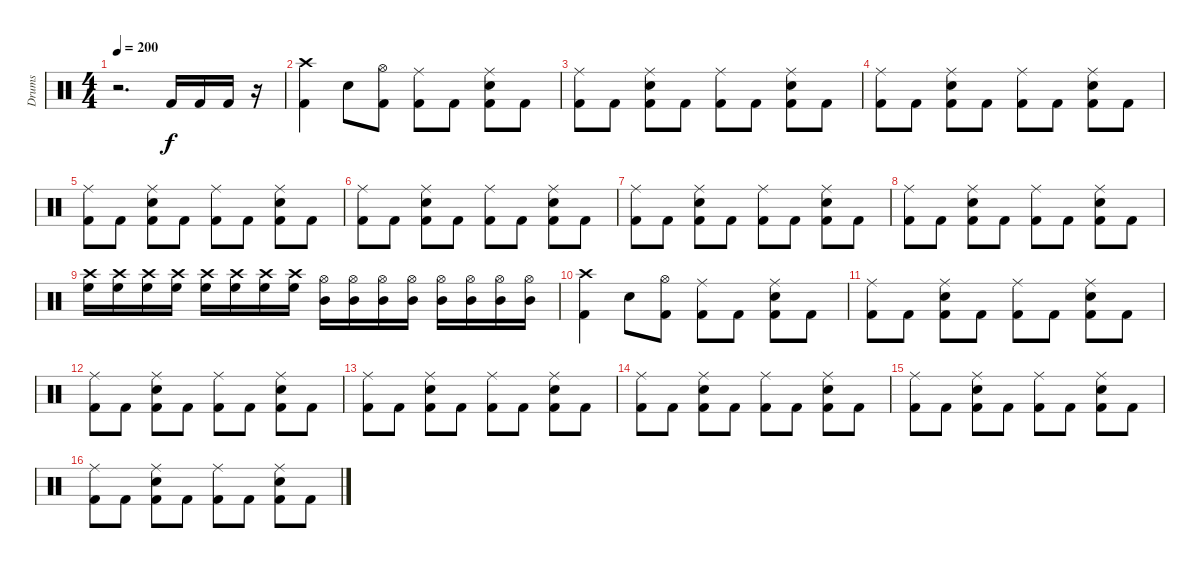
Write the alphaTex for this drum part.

\track ("Drums" "Drums") {instrument percussion}
\staff {score}
\articulation defaults
\ts (4 4)
\tempo 200
\clef neutral
\ks c
r.2{d dy f} "Kick (hit) 2".16 "Kick (hit) 2".16 "Kick (hit) 2".16 r.16 |
("Crash high (hit)" "Kick (hit) 2").4 "Snare (hit) 2".8 ("Hi-Hat (open)" "Kick (hit) 2").8 ("Ride (middle)" "Kick (hit) 2").8 "Kick (hit) 2".8 ("Ride (middle)" "Snare (hit) 2" "Kick (hit) 2").8 "Kick (hit) 2".8 |
("Ride (middle)" "Kick (hit) 2").8 "Kick (hit) 2".8 ("Ride (middle)" "Snare (hit) 2" "Kick (hit) 2").8 "Kick (hit) 2".8 ("Ride (middle)" "Kick (hit) 2").8 "Kick (hit) 2".8 ("Ride (middle)" "Snare (hit) 2" "Kick (hit) 2").8 "Kick (hit) 2".8 |
("Ride (middle)" "Kick (hit) 2").8 "Kick (hit) 2".8 ("Ride (middle)" "Snare (hit) 2" "Kick (hit) 2").8 "Kick (hit) 2".8 ("Ride (middle)" "Kick (hit) 2").8 "Kick (hit) 2".8 ("Ride (middle)" "Snare (hit) 2" "Kick (hit) 2").8 "Kick (hit) 2".8 |
("Ride (middle)" "Kick (hit) 2").8 "Kick (hit) 2".8 ("Ride (middle)" "Snare (hit) 2" "Kick (hit) 2").8 "Kick (hit) 2".8 ("Ride (middle)" "Kick (hit) 2").8 "Kick (hit) 2".8 ("Ride (middle)" "Snare (hit) 2" "Kick (hit) 2").8 "Kick (hit) 2".8 |
("Ride (middle)" "Kick (hit) 2").8 "Kick (hit) 2".8 ("Ride (middle)" "Snare (hit) 2" "Kick (hit) 2").8 "Kick (hit) 2".8 ("Ride (middle)" "Kick (hit) 2").8 "Kick (hit) 2".8 ("Ride (middle)" "Snare (hit) 2" "Kick (hit) 2").8 "Kick (hit) 2".8 |
("Ride (middle)" "Kick (hit) 2").8 "Kick (hit) 2".8 ("Ride (middle)" "Snare (hit) 2" "Kick (hit) 2").8 "Kick (hit) 2".8 ("Ride (middle)" "Kick (hit) 2").8 "Kick (hit) 2".8 ("Ride (middle)" "Snare (hit) 2" "Kick (hit) 2").8 "Kick (hit) 2".8 |
("Ride (middle)" "Kick (hit) 2").8 "Kick (hit) 2".8 ("Ride (middle)" "Snare (hit) 2" "Kick (hit) 2").8 "Kick (hit) 2".8 ("Ride (middle)" "Kick (hit) 2").8 "Kick (hit) 2".8 ("Ride (middle)" "Snare (hit) 2" "Kick (hit) 2").8 "Kick (hit) 2".8 |
("Crash high (hit)" "High Floor Tom (hit)").16 ("Crash high (hit)" "High Floor Tom (hit)").16 ("Crash high (hit)" "High Floor Tom (hit)").16 ("Crash high (hit)" "High Floor Tom (hit)").16 ("Crash high (hit)" "High Floor Tom (hit)").16 ("Crash high (hit)" "High Floor Tom (hit)").16 ("Crash high (hit)" "High Floor Tom (hit)").16 ("Crash high (hit)" "High Floor Tom (hit)").16 ("Hi-Hat (open)" "Mid Tom (hit)").16 ("Hi-Hat (open)" "Mid Tom (hit)").16 ("Hi-Hat (open)" "Mid Tom (hit)").16 ("Hi-Hat (open)" "Mid Tom (hit)").16 ("Hi-Hat (open)" "Mid Tom (hit)").16 ("Hi-Hat (open)" "Mid Tom (hit)").16 ("Hi-Hat (open)" "Mid Tom (hit)").16 ("Hi-Hat (open)" "Mid Tom (hit)").16 |
("Crash high (hit)" "Kick (hit) 2").4 "Snare (hit) 2".8 ("Hi-Hat (open)" "Kick (hit) 2").8 ("Ride (middle)" "Kick (hit) 2").8 "Kick (hit) 2".8 ("Ride (middle)" "Snare (hit) 2" "Kick (hit) 2").8 "Kick (hit) 2".8 |
("Ride (middle)" "Kick (hit) 2").8 "Kick (hit) 2".8 ("Ride (middle)" "Snare (hit) 2" "Kick (hit) 2").8 "Kick (hit) 2".8 ("Ride (middle)" "Kick (hit) 2").8 "Kick (hit) 2".8 ("Ride (middle)" "Snare (hit) 2" "Kick (hit) 2").8 "Kick (hit) 2".8 |
("Ride (middle)" "Kick (hit) 2").8 "Kick (hit) 2".8 ("Ride (middle)" "Snare (hit) 2" "Kick (hit) 2").8 "Kick (hit) 2".8 ("Ride (middle)" "Kick (hit) 2").8 "Kick (hit) 2".8 ("Ride (middle)" "Snare (hit) 2" "Kick (hit) 2").8 "Kick (hit) 2".8 |
("Ride (middle)" "Kick (hit) 2").8 "Kick (hit) 2".8 ("Ride (middle)" "Snare (hit) 2" "Kick (hit) 2").8 "Kick (hit) 2".8 ("Ride (middle)" "Kick (hit) 2").8 "Kick (hit) 2".8 ("Ride (middle)" "Snare (hit) 2" "Kick (hit) 2").8 "Kick (hit) 2".8 |
("Ride (middle)" "Kick (hit) 2").8 "Kick (hit) 2".8 ("Ride (middle)" "Snare (hit) 2" "Kick (hit) 2").8 "Kick (hit) 2".8 ("Ride (middle)" "Kick (hit) 2").8 "Kick (hit) 2".8 ("Ride (middle)" "Snare (hit) 2" "Kick (hit) 2").8 "Kick (hit) 2".8 |
("Ride (middle)" "Kick (hit) 2").8 "Kick (hit) 2".8 ("Ride (middle)" "Snare (hit) 2" "Kick (hit) 2").8 "Kick (hit) 2".8 ("Ride (middle)" "Kick (hit) 2").8 "Kick (hit) 2".8 ("Ride (middle)" "Snare (hit) 2" "Kick (hit) 2").8 "Kick (hit) 2".8 |
("Ride (middle)" "Kick (hit) 2").8 "Kick (hit) 2".8 ("Ride (middle)" "Snare (hit) 2" "Kick (hit) 2").8 "Kick (hit) 2".8 ("Ride (middle)" "Kick (hit) 2").8 "Kick (hit) 2".8 ("Ride (middle)" "Snare (hit) 2" "Kick (hit) 2").8 "Kick (hit) 2".8
